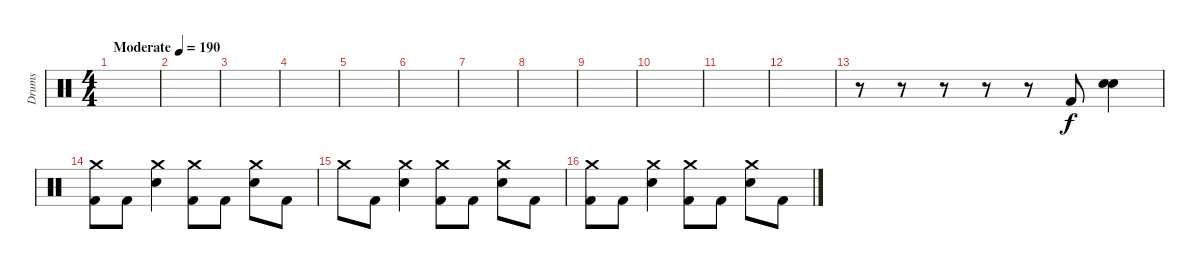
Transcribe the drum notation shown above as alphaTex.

\track ("Drums" "Drums") {instrument percussion}
\staff {score}
\articulation defaults
\ts (4 4)
\tempo (190 "Moderate")
\clef neutral
\ks c
|
|
|
|
|
|
|
|
|
|
|
|
r.8 r.8 r.8 r.8 r.8 "Kick (hit) 2".8 ("Electric Snare (hit)" "Electric Snare (hit)").4{bu 240} |
("Crash medium (hit)" "Kick (hit) 2").8 "Kick (hit) 2".8 ("Crash medium (hit)" "Electric Snare (hit)").4 ("Crash medium (hit)" "Kick (hit) 2").8 "Kick (hit) 2".8 ("Crash medium (hit)" "Electric Snare (hit)").8 "Kick (hit) 2".8 |
"Crash medium (hit)".8 "Kick (hit) 2".8 ("Crash medium (hit)" "Electric Snare (hit)").4 ("Crash medium (hit)" "Kick (hit) 2").8 "Kick (hit) 2".8 ("Crash medium (hit)" "Electric Snare (hit)").8 "Kick (hit) 2".8 |
("Crash medium (hit)" "Kick (hit) 2").8 "Kick (hit) 2".8 ("Crash medium (hit)" "Electric Snare (hit)").4 ("Crash medium (hit)" "Kick (hit) 2").8 "Kick (hit) 2".8 ("Crash medium (hit)" "Electric Snare (hit)").8 "Kick (hit) 2".8
